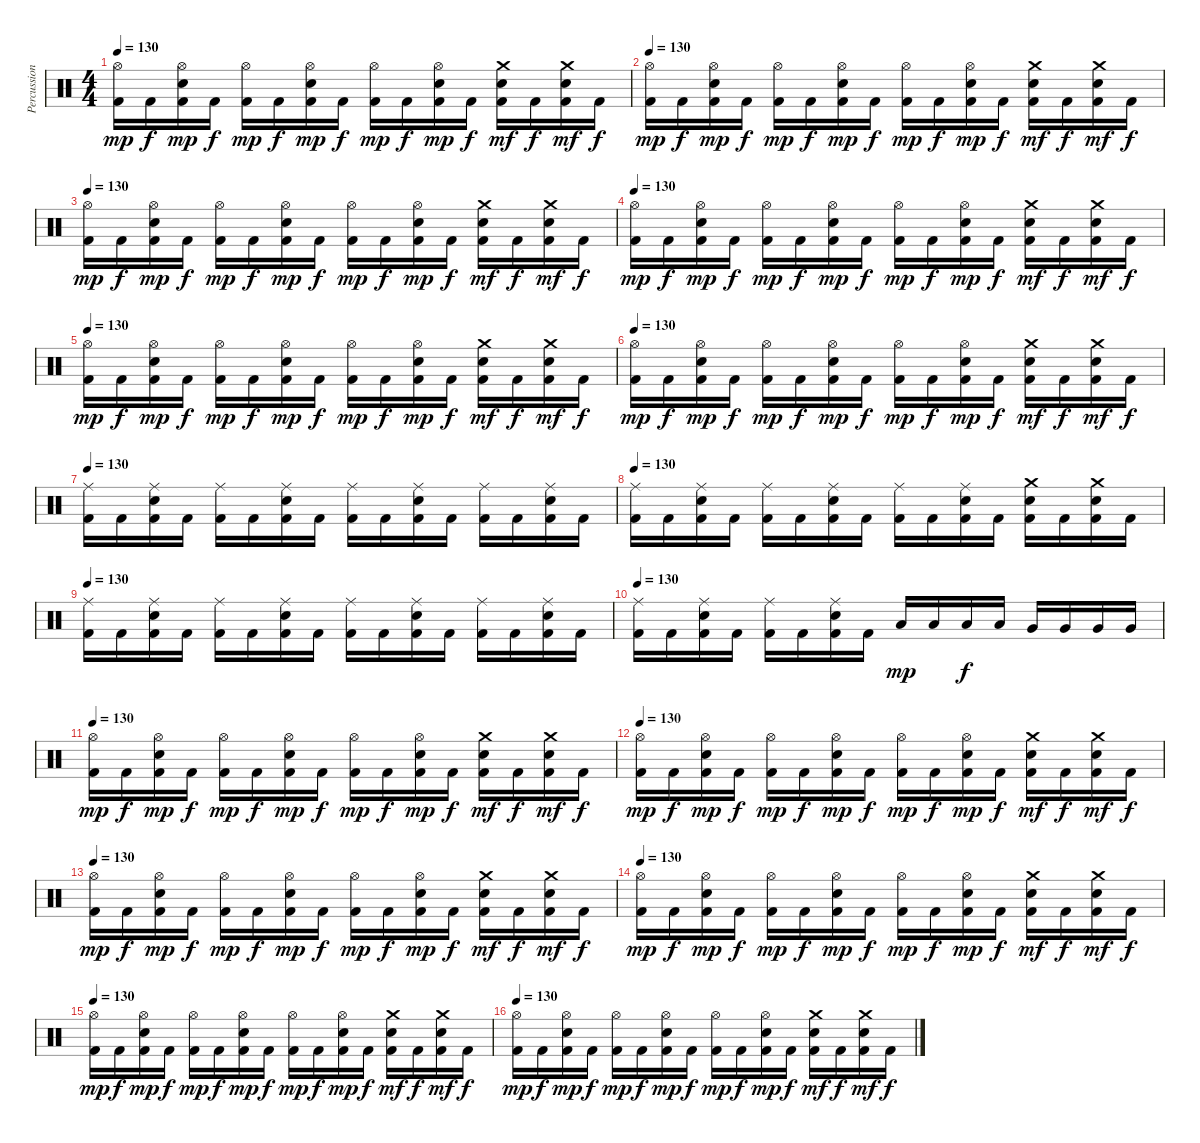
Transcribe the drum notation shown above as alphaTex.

\track ("Percussion" "Percussion") {instrument percussion}
\staff {score}
\articulation defaults
\ts (4 4)
\tempo 130
\clef neutral
\ks c
("Hi-Hat (open)" "Kick (hit) 2").16{dy mp} "Kick (hit) 2".16{dy f} ("Hi-Hat (open)" "Snare (hit) 2" "Kick (hit) 2").16{dy mp} "Kick (hit) 2".16{dy f} ("Hi-Hat (open)" "Kick (hit) 2").16{dy mp} "Kick (hit) 2".16{dy f} ("Hi-Hat (open)" "Snare (hit) 2" "Kick (hit) 2").16{dy mp} "Kick (hit) 2".16{dy f} ("Hi-Hat (open)" "Kick (hit) 2").16{dy mp} "Kick (hit) 2".16{dy f} ("Hi-Hat (open)" "Snare (hit) 2" "Kick (hit) 2").16{dy mp} "Kick (hit) 2".16{dy f} ("Crash medium (hit)" "Snare (hit) 2" "Kick (hit) 2").16{dy mf} "Kick (hit) 2".16{dy f} ("Crash medium (hit)" "Snare (hit) 2" "Kick (hit) 2").16{dy mf} "Kick (hit) 2".16{dy f} |
\tempo 130
("Hi-Hat (open)" "Kick (hit) 2").16{dy mp} "Kick (hit) 2".16{dy f} ("Hi-Hat (open)" "Snare (hit) 2" "Kick (hit) 2").16{dy mp} "Kick (hit) 2".16{dy f} ("Hi-Hat (open)" "Kick (hit) 2").16{dy mp} "Kick (hit) 2".16{dy f} ("Hi-Hat (open)" "Snare (hit) 2" "Kick (hit) 2").16{dy mp} "Kick (hit) 2".16{dy f} ("Hi-Hat (open)" "Kick (hit) 2").16{dy mp} "Kick (hit) 2".16{dy f} ("Hi-Hat (open)" "Snare (hit) 2" "Kick (hit) 2").16{dy mp} "Kick (hit) 2".16{dy f} ("Crash medium (hit)" "Snare (hit) 2" "Kick (hit) 2").16{dy mf} "Kick (hit) 2".16{dy f} ("Crash medium (hit)" "Snare (hit) 2" "Kick (hit) 2").16{dy mf} "Kick (hit) 2".16{dy f} |
\tempo 130
("Hi-Hat (open)" "Kick (hit) 2").16{dy mp} "Kick (hit) 2".16{dy f} ("Hi-Hat (open)" "Snare (hit) 2" "Kick (hit) 2").16{dy mp} "Kick (hit) 2".16{dy f} ("Hi-Hat (open)" "Kick (hit) 2").16{dy mp} "Kick (hit) 2".16{dy f} ("Hi-Hat (open)" "Snare (hit) 2" "Kick (hit) 2").16{dy mp} "Kick (hit) 2".16{dy f} ("Hi-Hat (open)" "Kick (hit) 2").16{dy mp} "Kick (hit) 2".16{dy f} ("Hi-Hat (open)" "Snare (hit) 2" "Kick (hit) 2").16{dy mp} "Kick (hit) 2".16{dy f} ("Crash medium (hit)" "Snare (hit) 2" "Kick (hit) 2").16{dy mf} "Kick (hit) 2".16{dy f} ("Crash medium (hit)" "Snare (hit) 2" "Kick (hit) 2").16{dy mf} "Kick (hit) 2".16{dy f} |
\tempo 130
("Hi-Hat (open)" "Kick (hit) 2").16{dy mp} "Kick (hit) 2".16{dy f} ("Hi-Hat (open)" "Snare (hit) 2" "Kick (hit) 2").16{dy mp} "Kick (hit) 2".16{dy f} ("Hi-Hat (open)" "Kick (hit) 2").16{dy mp} "Kick (hit) 2".16{dy f} ("Hi-Hat (open)" "Snare (hit) 2" "Kick (hit) 2").16{dy mp} "Kick (hit) 2".16{dy f} ("Hi-Hat (open)" "Kick (hit) 2").16{dy mp} "Kick (hit) 2".16{dy f} ("Hi-Hat (open)" "Snare (hit) 2" "Kick (hit) 2").16{dy mp} "Kick (hit) 2".16{dy f} ("Crash medium (hit)" "Snare (hit) 2" "Kick (hit) 2").16{dy mf} "Kick (hit) 2".16{dy f} ("Crash medium (hit)" "Snare (hit) 2" "Kick (hit) 2").16{dy mf} "Kick (hit) 2".16{dy f} |
\tempo 130
("Hi-Hat (open)" "Kick (hit) 2").16{dy mp} "Kick (hit) 2".16{dy f} ("Hi-Hat (open)" "Snare (hit) 2" "Kick (hit) 2").16{dy mp} "Kick (hit) 2".16{dy f} ("Hi-Hat (open)" "Kick (hit) 2").16{dy mp} "Kick (hit) 2".16{dy f} ("Hi-Hat (open)" "Snare (hit) 2" "Kick (hit) 2").16{dy mp} "Kick (hit) 2".16{dy f} ("Hi-Hat (open)" "Kick (hit) 2").16{dy mp} "Kick (hit) 2".16{dy f} ("Hi-Hat (open)" "Snare (hit) 2" "Kick (hit) 2").16{dy mp} "Kick (hit) 2".16{dy f} ("Crash medium (hit)" "Snare (hit) 2" "Kick (hit) 2").16{dy mf} "Kick (hit) 2".16{dy f} ("Crash medium (hit)" "Snare (hit) 2" "Kick (hit) 2").16{dy mf} "Kick (hit) 2".16{dy f} |
\tempo 130
("Hi-Hat (open)" "Kick (hit) 2").16{dy mp} "Kick (hit) 2".16{dy f} ("Hi-Hat (open)" "Snare (hit) 2" "Kick (hit) 2").16{dy mp} "Kick (hit) 2".16{dy f} ("Hi-Hat (open)" "Kick (hit) 2").16{dy mp} "Kick (hit) 2".16{dy f} ("Hi-Hat (open)" "Snare (hit) 2" "Kick (hit) 2").16{dy mp} "Kick (hit) 2".16{dy f} ("Hi-Hat (open)" "Kick (hit) 2").16{dy mp} "Kick (hit) 2".16{dy f} ("Hi-Hat (open)" "Snare (hit) 2" "Kick (hit) 2").16{dy mp} "Kick (hit) 2".16{dy f} ("Crash medium (hit)" "Snare (hit) 2" "Kick (hit) 2").16{dy mf} "Kick (hit) 2".16{dy f} ("Crash medium (hit)" "Snare (hit) 2" "Kick (hit) 2").16{dy mf} "Kick (hit) 2".16{dy f} |
\tempo 130
("Ride (middle)" "Kick (hit) 2").16 "Kick (hit) 2".16 ("Ride (middle)" "Snare (hit) 2" "Kick (hit) 2").16 "Kick (hit) 2".16 ("Ride (middle)" "Kick (hit) 2").16 "Kick (hit) 2".16 ("Ride (middle)" "Snare (hit) 2" "Kick (hit) 2").16 "Kick (hit) 2".16 ("Ride (middle)" "Kick (hit) 2").16 "Kick (hit) 2".16 ("Ride (middle)" "Snare (hit) 2" "Kick (hit) 2").16 "Kick (hit) 2".16 ("Ride (middle)" "Kick (hit) 2").16 "Kick (hit) 2".16 ("Ride (middle)" "Snare (hit) 2" "Kick (hit) 2").16 "Kick (hit) 2".16 |
\tempo 130
("Ride (middle)" "Kick (hit) 2").16 "Kick (hit) 2".16 ("Ride (middle)" "Snare (hit) 2" "Kick (hit) 2").16 "Kick (hit) 2".16 ("Ride (middle)" "Kick (hit) 2").16 "Kick (hit) 2".16 ("Ride (middle)" "Snare (hit) 2" "Kick (hit) 2").16 "Kick (hit) 2".16 ("Ride (middle)" "Kick (hit) 2").16 "Kick (hit) 2".16 ("Ride (middle)" "Snare (hit) 2" "Kick (hit) 2").16 "Kick (hit) 2".16 ("Crash medium (hit)" "Snare (hit) 2" "Kick (hit) 2").16 "Kick (hit) 2".16 ("Crash medium (hit)" "Snare (hit) 2" "Kick (hit) 2").16 "Kick (hit) 2".16 |
\tempo 130
("Ride (middle)" "Kick (hit) 2").16 "Kick (hit) 2".16 ("Ride (middle)" "Snare (hit) 2" "Kick (hit) 2").16 "Kick (hit) 2".16 ("Ride (middle)" "Kick (hit) 2").16 "Kick (hit) 2".16 ("Ride (middle)" "Snare (hit) 2" "Kick (hit) 2").16 "Kick (hit) 2".16 ("Ride (middle)" "Kick (hit) 2").16 "Kick (hit) 2".16 ("Ride (middle)" "Snare (hit) 2" "Kick (hit) 2").16 "Kick (hit) 2".16 ("Ride (middle)" "Kick (hit) 2").16 "Kick (hit) 2".16 ("Ride (middle)" "Snare (hit) 2" "Kick (hit) 2").16 "Kick (hit) 2".16 |
\tempo 130
("Ride (middle)" "Kick (hit) 2").16 "Kick (hit) 2".16 ("Ride (middle)" "Snare (hit) 2" "Kick (hit) 2").16 "Kick (hit) 2".16 ("Ride (middle)" "Kick (hit) 2").16 "Kick (hit) 2".16 ("Ride (middle)" "Snare (hit) 2" "Kick (hit) 2").16 "Kick (hit) 2".16 "Low Tom (hit)".16{dy mp} "Low Tom (hit)".16 "Low Tom (hit)".16{dy f} "Low Tom (hit)".16 "Very Low Tom (hit)".16 "Very Low Tom (hit)".16 "Very Low Tom (hit)".16 "Very Low Tom (hit)".16 |
\tempo 130
("Hi-Hat (open)" "Kick (hit) 2").16{dy mp} "Kick (hit) 2".16{dy f} ("Hi-Hat (open)" "Snare (hit) 2" "Kick (hit) 2").16{dy mp} "Kick (hit) 2".16{dy f} ("Hi-Hat (open)" "Kick (hit) 2").16{dy mp} "Kick (hit) 2".16{dy f} ("Hi-Hat (open)" "Snare (hit) 2" "Kick (hit) 2").16{dy mp} "Kick (hit) 2".16{dy f} ("Hi-Hat (open)" "Kick (hit) 2").16{dy mp} "Kick (hit) 2".16{dy f} ("Hi-Hat (open)" "Snare (hit) 2" "Kick (hit) 2").16{dy mp} "Kick (hit) 2".16{dy f} ("Crash medium (hit)" "Snare (hit) 2" "Kick (hit) 2").16{dy mf} "Kick (hit) 2".16{dy f} ("Crash medium (hit)" "Snare (hit) 2" "Kick (hit) 2").16{dy mf} "Kick (hit) 2".16{dy f} |
\tempo 130
("Hi-Hat (open)" "Kick (hit) 2").16{dy mp} "Kick (hit) 2".16{dy f} ("Hi-Hat (open)" "Snare (hit) 2" "Kick (hit) 2").16{dy mp} "Kick (hit) 2".16{dy f} ("Hi-Hat (open)" "Kick (hit) 2").16{dy mp} "Kick (hit) 2".16{dy f} ("Hi-Hat (open)" "Snare (hit) 2" "Kick (hit) 2").16{dy mp} "Kick (hit) 2".16{dy f} ("Hi-Hat (open)" "Kick (hit) 2").16{dy mp} "Kick (hit) 2".16{dy f} ("Hi-Hat (open)" "Snare (hit) 2" "Kick (hit) 2").16{dy mp} "Kick (hit) 2".16{dy f} ("Crash medium (hit)" "Snare (hit) 2" "Kick (hit) 2").16{dy mf} "Kick (hit) 2".16{dy f} ("Crash medium (hit)" "Snare (hit) 2" "Kick (hit) 2").16{dy mf} "Kick (hit) 2".16{dy f} |
\tempo 130
("Hi-Hat (open)" "Kick (hit) 2").16{dy mp} "Kick (hit) 2".16{dy f} ("Hi-Hat (open)" "Snare (hit) 2" "Kick (hit) 2").16{dy mp} "Kick (hit) 2".16{dy f} ("Hi-Hat (open)" "Kick (hit) 2").16{dy mp} "Kick (hit) 2".16{dy f} ("Hi-Hat (open)" "Snare (hit) 2" "Kick (hit) 2").16{dy mp} "Kick (hit) 2".16{dy f} ("Hi-Hat (open)" "Kick (hit) 2").16{dy mp} "Kick (hit) 2".16{dy f} ("Hi-Hat (open)" "Snare (hit) 2" "Kick (hit) 2").16{dy mp} "Kick (hit) 2".16{dy f} ("Crash medium (hit)" "Snare (hit) 2" "Kick (hit) 2").16{dy mf} "Kick (hit) 2".16{dy f} ("Crash medium (hit)" "Snare (hit) 2" "Kick (hit) 2").16{dy mf} "Kick (hit) 2".16{dy f} |
\tempo 130
("Hi-Hat (open)" "Kick (hit) 2").16{dy mp} "Kick (hit) 2".16{dy f} ("Hi-Hat (open)" "Snare (hit) 2" "Kick (hit) 2").16{dy mp} "Kick (hit) 2".16{dy f} ("Hi-Hat (open)" "Kick (hit) 2").16{dy mp} "Kick (hit) 2".16{dy f} ("Hi-Hat (open)" "Snare (hit) 2" "Kick (hit) 2").16{dy mp} "Kick (hit) 2".16{dy f} ("Hi-Hat (open)" "Kick (hit) 2").16{dy mp} "Kick (hit) 2".16{dy f} ("Hi-Hat (open)" "Snare (hit) 2" "Kick (hit) 2").16{dy mp} "Kick (hit) 2".16{dy f} ("Crash medium (hit)" "Snare (hit) 2" "Kick (hit) 2").16{dy mf} "Kick (hit) 2".16{dy f} ("Crash medium (hit)" "Snare (hit) 2" "Kick (hit) 2").16{dy mf} "Kick (hit) 2".16{dy f} |
\tempo 130
("Hi-Hat (open)" "Kick (hit) 2").16{dy mp} "Kick (hit) 2".16{dy f} ("Hi-Hat (open)" "Snare (hit) 2" "Kick (hit) 2").16{dy mp} "Kick (hit) 2".16{dy f} ("Hi-Hat (open)" "Kick (hit) 2").16{dy mp} "Kick (hit) 2".16{dy f} ("Hi-Hat (open)" "Snare (hit) 2" "Kick (hit) 2").16{dy mp} "Kick (hit) 2".16{dy f} ("Hi-Hat (open)" "Kick (hit) 2").16{dy mp} "Kick (hit) 2".16{dy f} ("Hi-Hat (open)" "Snare (hit) 2" "Kick (hit) 2").16{dy mp} "Kick (hit) 2".16{dy f} ("Crash medium (hit)" "Snare (hit) 2" "Kick (hit) 2").16{dy mf} "Kick (hit) 2".16{dy f} ("Crash medium (hit)" "Snare (hit) 2" "Kick (hit) 2").16{dy mf} "Kick (hit) 2".16{dy f} |
\tempo 130
("Hi-Hat (open)" "Kick (hit) 2").16{dy mp} "Kick (hit) 2".16{dy f} ("Hi-Hat (open)" "Snare (hit) 2" "Kick (hit) 2").16{dy mp} "Kick (hit) 2".16{dy f} ("Hi-Hat (open)" "Kick (hit) 2").16{dy mp} "Kick (hit) 2".16{dy f} ("Hi-Hat (open)" "Snare (hit) 2" "Kick (hit) 2").16{dy mp} "Kick (hit) 2".16{dy f} ("Hi-Hat (open)" "Kick (hit) 2").16{dy mp} "Kick (hit) 2".16{dy f} ("Hi-Hat (open)" "Snare (hit) 2" "Kick (hit) 2").16{dy mp} "Kick (hit) 2".16{dy f} ("Crash medium (hit)" "Snare (hit) 2" "Kick (hit) 2").16{dy mf} "Kick (hit) 2".16{dy f} ("Crash medium (hit)" "Snare (hit) 2" "Kick (hit) 2").16{dy mf} "Kick (hit) 2".16{dy f}
